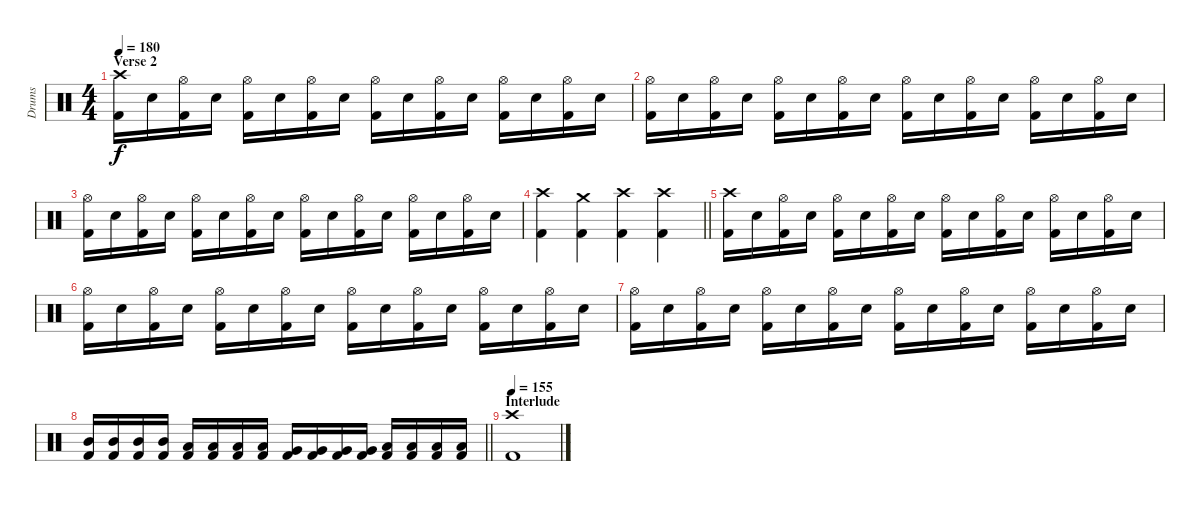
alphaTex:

\track ("Drums" "Drums") {instrument percussion}
\staff {score}
\articulation defaults
\ts (4 4)
\section ("" "Verse 2")
\tempo 180
\clef neutral
\ks c
("Crash high (hit)" "Kick (hit) 2").16{dy f} "Electric Snare (hit)".16 ("Hi-Hat (open)" "Kick (hit) 2").16 "Electric Snare (hit)".16 ("Hi-Hat (open)" "Kick (hit) 2").16 "Electric Snare (hit)".16 ("Hi-Hat (open)" "Kick (hit) 2").16 "Electric Snare (hit)".16 ("Hi-Hat (open)" "Kick (hit) 2").16 "Electric Snare (hit)".16 ("Hi-Hat (open)" "Kick (hit) 2").16 "Electric Snare (hit)".16 ("Hi-Hat (open)" "Kick (hit) 2").16 "Electric Snare (hit)".16 ("Hi-Hat (open)" "Kick (hit) 2").16 "Electric Snare (hit)".16 |
("Hi-Hat (open)" "Kick (hit) 2").16 "Electric Snare (hit)".16 ("Hi-Hat (open)" "Kick (hit) 2").16 "Electric Snare (hit)".16 ("Hi-Hat (open)" "Kick (hit) 2").16 "Electric Snare (hit)".16 ("Hi-Hat (open)" "Kick (hit) 2").16 "Electric Snare (hit)".16 ("Hi-Hat (open)" "Kick (hit) 2").16 "Electric Snare (hit)".16 ("Hi-Hat (open)" "Kick (hit) 2").16 "Electric Snare (hit)".16 ("Hi-Hat (open)" "Kick (hit) 2").16 "Electric Snare (hit)".16 ("Hi-Hat (open)" "Kick (hit) 2").16 "Electric Snare (hit)".16 |
("Hi-Hat (open)" "Kick (hit) 2").16 "Electric Snare (hit)".16 ("Hi-Hat (open)" "Kick (hit) 2").16 "Electric Snare (hit)".16 ("Hi-Hat (open)" "Kick (hit) 2").16 "Electric Snare (hit)".16 ("Hi-Hat (open)" "Kick (hit) 2").16 "Electric Snare (hit)".16 ("Hi-Hat (open)" "Kick (hit) 2").16 "Electric Snare (hit)".16 ("Hi-Hat (open)" "Kick (hit) 2").16 "Electric Snare (hit)".16 ("Hi-Hat (open)" "Kick (hit) 2").16 "Electric Snare (hit)".16 ("Hi-Hat (open)" "Kick (hit) 2").16 "Electric Snare (hit)".16 |
\barLineRight lightlight
("Crash high (hit)" "Kick (hit) 2").4 ("Crash medium (hit)" "Kick (hit) 2").4 ("Crash high (hit)" "Kick (hit) 2").4 ("Crash high (hit)" "Kick (hit) 2").4 |
("Crash high (hit)" "Kick (hit) 2").16 "Electric Snare (hit)".16 ("Hi-Hat (open)" "Kick (hit) 2").16 "Electric Snare (hit)".16 ("Hi-Hat (open)" "Kick (hit) 2").16 "Electric Snare (hit)".16 ("Hi-Hat (open)" "Kick (hit) 2").16 "Electric Snare (hit)".16 ("Hi-Hat (open)" "Kick (hit) 2").16 "Electric Snare (hit)".16 ("Hi-Hat (open)" "Kick (hit) 2").16 "Electric Snare (hit)".16 ("Hi-Hat (open)" "Kick (hit) 2").16 "Electric Snare (hit)".16 ("Hi-Hat (open)" "Kick (hit) 2").16 "Electric Snare (hit)".16 |
("Hi-Hat (open)" "Kick (hit) 2").16 "Electric Snare (hit)".16 ("Hi-Hat (open)" "Kick (hit) 2").16 "Electric Snare (hit)".16 ("Hi-Hat (open)" "Kick (hit) 2").16 "Electric Snare (hit)".16 ("Hi-Hat (open)" "Kick (hit) 2").16 "Electric Snare (hit)".16 ("Hi-Hat (open)" "Kick (hit) 2").16 "Electric Snare (hit)".16 ("Hi-Hat (open)" "Kick (hit) 2").16 "Electric Snare (hit)".16 ("Hi-Hat (open)" "Kick (hit) 2").16 "Electric Snare (hit)".16 ("Hi-Hat (open)" "Kick (hit) 2").16 "Electric Snare (hit)".16 |
("Hi-Hat (open)" "Kick (hit) 2").16 "Electric Snare (hit)".16 ("Hi-Hat (open)" "Kick (hit) 2").16 "Electric Snare (hit)".16 ("Hi-Hat (open)" "Kick (hit) 2").16 "Electric Snare (hit)".16 ("Hi-Hat (open)" "Kick (hit) 2").16 "Electric Snare (hit)".16 ("Hi-Hat (open)" "Kick (hit) 2").16 "Electric Snare (hit)".16 ("Hi-Hat (open)" "Kick (hit) 2").16 "Electric Snare (hit)".16 ("Hi-Hat (open)" "Kick (hit) 2").16 "Electric Snare (hit)".16 ("Hi-Hat (open)" "Kick (hit) 2").16 "Electric Snare (hit)".16 |
\barLineRight lightlight
("Mid Tom (hit)" "Kick (hit) 2").16 ("Mid Tom (hit)" "Kick (hit) 2").16 ("Mid Tom (hit)" "Kick (hit) 2").16 ("Mid Tom (hit)" "Kick (hit) 2").16 ("Low Tom (hit)" "Kick (hit) 2").16 ("Low Tom (hit)" "Kick (hit) 2").16 ("Low Tom (hit)" "Kick (hit) 2").16 ("Low Tom (hit)" "Kick (hit) 2").16 ("Very Low Tom (hit)" "Kick (hit) 2").16 ("Very Low Tom (hit)" "Kick (hit) 2").16 ("Very Low Tom (hit)" "Kick (hit) 2").16 ("Very Low Tom (hit)" "Kick (hit) 2").16 ("Low Floor Tom (hit)" "Kick (hit) 2").16 ("Low Floor Tom (hit)" "Kick (hit) 2").16 ("Low Floor Tom (hit)" "Kick (hit) 2").16 ("Low Floor Tom (hit)" "Kick (hit) 2").16 |
\section ("" "Interlude")
\tempo 155
("Crash high (hit)" "Kick (hit) 2").1
